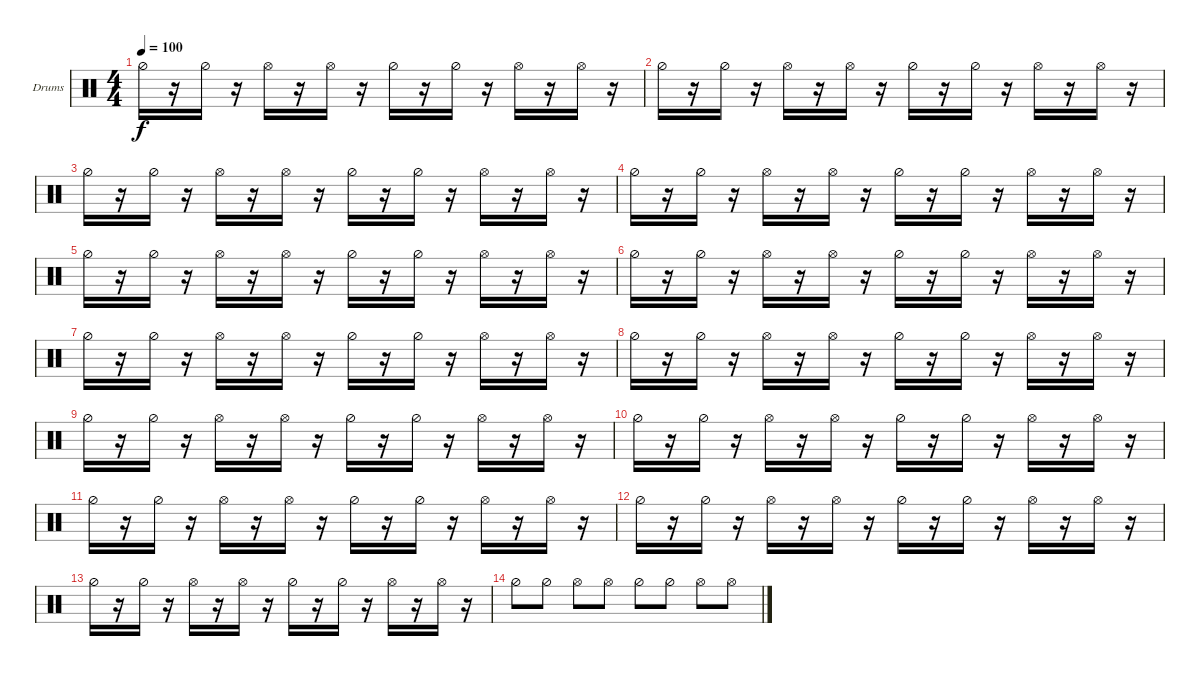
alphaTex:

\bracketExtendMode groupsimilarinstruments
\firstSystemTrackNameOrientation horizontal
\otherSystemsTrackNameOrientation horizontal
\track ("Drumkit" "Drums") {instrument percussion}
\staff {score}
\articulation defaults
\ts (4 4)
\tempo 100
\clef neutral
\ks c "Hi-Hat (half)".16{dy f}
r.16 "Hi-Hat (half)".16 r.16 "Hi-Hat (open)".16 r.16 "Hi-Hat (open)".16 r.16 "Hi-Hat (half)".16 r.16 "Hi-Hat (half)".16 r.16 "Hi-Hat (open)".16 r.16 "Hi-Hat (open)".16 r.16 |
"Hi-Hat (half)".16 r.16 "Hi-Hat (half)".16 r.16 "Hi-Hat (open)".16 r.16 "Hi-Hat (open)".16 r.16 "Hi-Hat (half)".16 r.16 "Hi-Hat (half)".16 r.16 "Hi-Hat (open)".16 r.16 "Hi-Hat (open)".16 r.16 |
"Hi-Hat (half)".16 r.16 "Hi-Hat (half)".16 r.16 "Hi-Hat (open)".16 r.16 "Hi-Hat (open)".16 r.16 "Hi-Hat (half)".16 r.16 "Hi-Hat (half)".16 r.16 "Hi-Hat (open)".16 r.16 "Hi-Hat (open)".16 r.16 |
"Hi-Hat (half)".16 r.16 "Hi-Hat (half)".16 r.16 "Hi-Hat (open)".16 r.16 "Hi-Hat (open)".16 r.16 "Hi-Hat (half)".16 r.16 "Hi-Hat (half)".16 r.16 "Hi-Hat (open)".16 r.16 "Hi-Hat (open)".16 r.16 |
"Hi-Hat (half)".16 r.16 "Hi-Hat (half)".16 r.16 "Hi-Hat (open)".16 r.16 "Hi-Hat (open)".16 r.16 "Hi-Hat (half)".16 r.16 "Hi-Hat (half)".16 r.16 "Hi-Hat (open)".16 r.16 "Hi-Hat (open)".16 r.16 |
"Hi-Hat (half)".16 r.16 "Hi-Hat (half)".16 r.16 "Hi-Hat (open)".16 r.16 "Hi-Hat (open)".16 r.16 "Hi-Hat (half)".16 r.16 "Hi-Hat (half)".16 r.16 "Hi-Hat (open)".16 r.16 "Hi-Hat (open)".16 r.16 |
"Hi-Hat (half)".16 r.16 "Hi-Hat (half)".16 r.16 "Hi-Hat (open)".16 r.16 "Hi-Hat (open)".16 r.16 "Hi-Hat (half)".16 r.16 "Hi-Hat (half)".16 r.16 "Hi-Hat (open)".16 r.16 "Hi-Hat (open)".16 r.16 |
"Hi-Hat (half)".16 r.16 "Hi-Hat (half)".16 r.16 "Hi-Hat (open)".16 r.16 "Hi-Hat (open)".16 r.16 "Hi-Hat (half)".16 r.16 "Hi-Hat (half)".16 r.16 "Hi-Hat (open)".16 r.16 "Hi-Hat (open)".16 r.16 |
"Hi-Hat (half)".16 r.16 "Hi-Hat (half)".16 r.16 "Hi-Hat (open)".16 r.16 "Hi-Hat (open)".16 r.16 "Hi-Hat (half)".16 r.16 "Hi-Hat (half)".16 r.16 "Hi-Hat (open)".16 r.16 "Hi-Hat (open)".16 r.16 |
"Hi-Hat (half)".16 r.16 "Hi-Hat (half)".16 r.16 "Hi-Hat (open)".16 r.16 "Hi-Hat (open)".16 r.16 "Hi-Hat (half)".16 r.16 "Hi-Hat (half)".16 r.16 "Hi-Hat (open)".16 r.16 "Hi-Hat (open)".16 r.16 |
"Hi-Hat (half)".16 r.16 "Hi-Hat (half)".16 r.16 "Hi-Hat (open)".16 r.16 "Hi-Hat (open)".16 r.16 "Hi-Hat (half)".16 r.16 "Hi-Hat (half)".16 r.16 "Hi-Hat (open)".16 r.16 "Hi-Hat (open)".16 r.16 |
"Hi-Hat (half)".16 r.16 "Hi-Hat (half)".16 r.16 "Hi-Hat (open)".16 r.16 "Hi-Hat (open)".16 r.16 "Hi-Hat (half)".16 r.16 "Hi-Hat (half)".16 r.16 "Hi-Hat (open)".16 r.16 "Hi-Hat (open)".16 r.16 |
"Hi-Hat (half)".16 r.16 "Hi-Hat (half)".16 r.16 "Hi-Hat (open)".16 r.16 "Hi-Hat (open)".16 r.16 "Hi-Hat (half)".16 r.16 "Hi-Hat (half)".16 r.16 "Hi-Hat (open)".16 r.16 "Hi-Hat (open)".16 r.16 |
"Hi-Hat (half)".8 "Hi-Hat (half)".8 "Hi-Hat (open)".8 "Hi-Hat (open)".8 "Hi-Hat (half)".8 "Hi-Hat (half)".8 "Hi-Hat (open)".8 "Hi-Hat (open)".8
